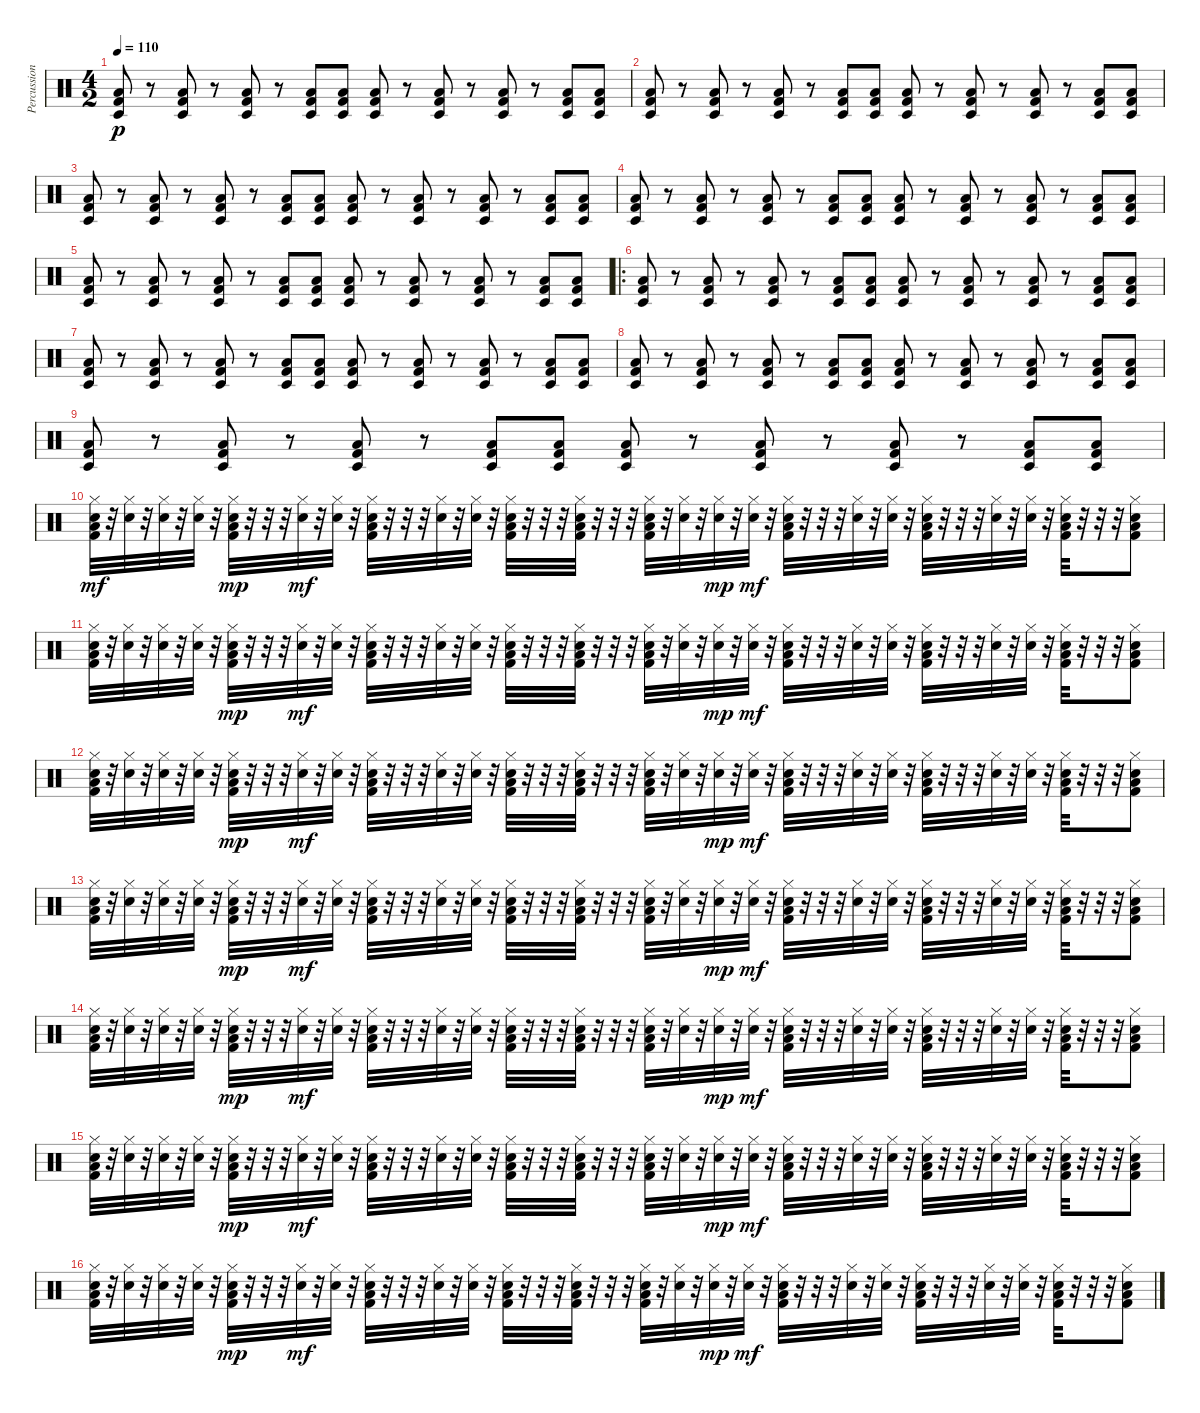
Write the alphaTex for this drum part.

\track ("Percussion2" "Percussion") {instrument percussion}
\staff
\articulation defaults
\ts (4 2)
\tempo 110
\clef neutral
\ks c
("Low Floor Tom (hit)" "Kick (hit) 2" "Timbale low (hit)").8{dy p} r.8 ("Low Floor Tom (hit)" "Kick (hit) 2" "Timbale low (hit)").8 r.8 ("Low Floor Tom (hit)" "Kick (hit) 2" "Timbale low (hit)").8 r.8 ("Low Floor Tom (hit)" "Kick (hit) 2" "Timbale low (hit)").8 ("Low Floor Tom (hit)" "Kick (hit) 2" "Timbale low (hit)").8 ("Low Floor Tom (hit)" "Kick (hit) 2" "Timbale low (hit)").8 r.8 ("Low Floor Tom (hit)" "Kick (hit) 2" "Timbale low (hit)").8 r.8 ("Low Floor Tom (hit)" "Kick (hit) 2" "Timbale low (hit)").8 r.8 ("Low Floor Tom (hit)" "Kick (hit) 2" "Timbale low (hit)").8 ("Low Floor Tom (hit)" "Kick (hit) 2" "Timbale low (hit)").8 |
("Low Floor Tom (hit)" "Kick (hit) 2" "Timbale low (hit)").8 r.8 ("Low Floor Tom (hit)" "Kick (hit) 2" "Timbale low (hit)").8 r.8 ("Low Floor Tom (hit)" "Kick (hit) 2" "Timbale low (hit)").8 r.8 ("Low Floor Tom (hit)" "Kick (hit) 2" "Timbale low (hit)").8 ("Low Floor Tom (hit)" "Kick (hit) 2" "Timbale low (hit)").8 ("Low Floor Tom (hit)" "Kick (hit) 2" "Timbale low (hit)").8 r.8 ("Low Floor Tom (hit)" "Kick (hit) 2" "Timbale low (hit)").8 r.8 ("Low Floor Tom (hit)" "Kick (hit) 2" "Timbale low (hit)").8 r.8 ("Low Floor Tom (hit)" "Kick (hit) 2" "Timbale low (hit)").8 ("Low Floor Tom (hit)" "Kick (hit) 2" "Timbale low (hit)").8 |
("Low Floor Tom (hit)" "Kick (hit) 2" "Timbale low (hit)").8 r.8 ("Low Floor Tom (hit)" "Kick (hit) 2" "Timbale low (hit)").8 r.8 ("Low Floor Tom (hit)" "Kick (hit) 2" "Timbale low (hit)").8 r.8 ("Low Floor Tom (hit)" "Kick (hit) 2" "Timbale low (hit)").8 ("Low Floor Tom (hit)" "Kick (hit) 2" "Timbale low (hit)").8 ("Low Floor Tom (hit)" "Kick (hit) 2" "Timbale low (hit)").8 r.8 ("Low Floor Tom (hit)" "Kick (hit) 2" "Timbale low (hit)").8 r.8 ("Low Floor Tom (hit)" "Kick (hit) 2" "Timbale low (hit)").8 r.8 ("Low Floor Tom (hit)" "Kick (hit) 2" "Timbale low (hit)").8 ("Low Floor Tom (hit)" "Kick (hit) 2" "Timbale low (hit)").8 |
("Low Floor Tom (hit)" "Kick (hit) 2" "Timbale low (hit)").8 r.8 ("Low Floor Tom (hit)" "Kick (hit) 2" "Timbale low (hit)").8 r.8 ("Low Floor Tom (hit)" "Kick (hit) 2" "Timbale low (hit)").8 r.8 ("Low Floor Tom (hit)" "Kick (hit) 2" "Timbale low (hit)").8 ("Low Floor Tom (hit)" "Kick (hit) 2" "Timbale low (hit)").8 ("Low Floor Tom (hit)" "Kick (hit) 2" "Timbale low (hit)").8 r.8 ("Low Floor Tom (hit)" "Kick (hit) 2" "Timbale low (hit)").8 r.8 ("Low Floor Tom (hit)" "Kick (hit) 2" "Timbale low (hit)").8 r.8 ("Low Floor Tom (hit)" "Kick (hit) 2" "Timbale low (hit)").8 ("Low Floor Tom (hit)" "Kick (hit) 2" "Timbale low (hit)").8 |
("Low Floor Tom (hit)" "Kick (hit) 2" "Timbale low (hit)").8 r.8 ("Low Floor Tom (hit)" "Kick (hit) 2" "Timbale low (hit)").8 r.8 ("Low Floor Tom (hit)" "Kick (hit) 2" "Timbale low (hit)").8 r.8 ("Low Floor Tom (hit)" "Kick (hit) 2" "Timbale low (hit)").8 ("Low Floor Tom (hit)" "Kick (hit) 2" "Timbale low (hit)").8 ("Low Floor Tom (hit)" "Kick (hit) 2" "Timbale low (hit)").8 r.8 ("Low Floor Tom (hit)" "Kick (hit) 2" "Timbale low (hit)").8 r.8 ("Low Floor Tom (hit)" "Kick (hit) 2" "Timbale low (hit)").8 r.8 ("Low Floor Tom (hit)" "Kick (hit) 2" "Timbale low (hit)").8 ("Low Floor Tom (hit)" "Kick (hit) 2" "Timbale low (hit)").8 |
\ro
("Low Floor Tom (hit)" "Kick (hit) 2" "Timbale low (hit)").8 r.8 ("Low Floor Tom (hit)" "Kick (hit) 2" "Timbale low (hit)").8 r.8 ("Low Floor Tom (hit)" "Kick (hit) 2" "Timbale low (hit)").8 r.8 ("Low Floor Tom (hit)" "Kick (hit) 2" "Timbale low (hit)").8 ("Low Floor Tom (hit)" "Kick (hit) 2" "Timbale low (hit)").8 ("Low Floor Tom (hit)" "Kick (hit) 2" "Timbale low (hit)").8 r.8 ("Low Floor Tom (hit)" "Kick (hit) 2" "Timbale low (hit)").8 r.8 ("Low Floor Tom (hit)" "Kick (hit) 2" "Timbale low (hit)").8 r.8 ("Low Floor Tom (hit)" "Kick (hit) 2" "Timbale low (hit)").8 ("Low Floor Tom (hit)" "Kick (hit) 2" "Timbale low (hit)").8 |
("Low Floor Tom (hit)" "Kick (hit) 2" "Timbale low (hit)").8 r.8 ("Low Floor Tom (hit)" "Kick (hit) 2" "Timbale low (hit)").8 r.8 ("Low Floor Tom (hit)" "Kick (hit) 2" "Timbale low (hit)").8 r.8 ("Low Floor Tom (hit)" "Kick (hit) 2" "Timbale low (hit)").8 ("Low Floor Tom (hit)" "Kick (hit) 2" "Timbale low (hit)").8 ("Low Floor Tom (hit)" "Kick (hit) 2" "Timbale low (hit)").8 r.8 ("Low Floor Tom (hit)" "Kick (hit) 2" "Timbale low (hit)").8 r.8 ("Low Floor Tom (hit)" "Kick (hit) 2" "Timbale low (hit)").8 r.8 ("Low Floor Tom (hit)" "Kick (hit) 2" "Timbale low (hit)").8 ("Low Floor Tom (hit)" "Kick (hit) 2" "Timbale low (hit)").8 |
("Low Floor Tom (hit)" "Kick (hit) 2" "Timbale low (hit)").8 r.8 ("Low Floor Tom (hit)" "Kick (hit) 2" "Timbale low (hit)").8 r.8 ("Low Floor Tom (hit)" "Kick (hit) 2" "Timbale low (hit)").8 r.8 ("Low Floor Tom (hit)" "Kick (hit) 2" "Timbale low (hit)").8 ("Low Floor Tom (hit)" "Kick (hit) 2" "Timbale low (hit)").8 ("Low Floor Tom (hit)" "Kick (hit) 2" "Timbale low (hit)").8 r.8 ("Low Floor Tom (hit)" "Kick (hit) 2" "Timbale low (hit)").8 r.8 ("Low Floor Tom (hit)" "Kick (hit) 2" "Timbale low (hit)").8 r.8 ("Low Floor Tom (hit)" "Kick (hit) 2" "Timbale low (hit)").8 ("Low Floor Tom (hit)" "Kick (hit) 2" "Timbale low (hit)").8 |
("Low Floor Tom (hit)" "Kick (hit) 2" "Timbale low (hit)").8 r.8 ("Low Floor Tom (hit)" "Kick (hit) 2" "Timbale low (hit)").8 r.8 ("Low Floor Tom (hit)" "Kick (hit) 2" "Timbale low (hit)").8 r.8 ("Low Floor Tom (hit)" "Kick (hit) 2" "Timbale low (hit)").8 ("Low Floor Tom (hit)" "Kick (hit) 2" "Timbale low (hit)").8 ("Low Floor Tom (hit)" "Kick (hit) 2" "Timbale low (hit)").8 r.8 ("Low Floor Tom (hit)" "Kick (hit) 2" "Timbale low (hit)").8 r.8 ("Low Floor Tom (hit)" "Kick (hit) 2" "Timbale low (hit)").8 r.8 ("Low Floor Tom (hit)" "Kick (hit) 2" "Timbale low (hit)").8 ("Low Floor Tom (hit)" "Kick (hit) 2" "Timbale low (hit)").8 |
("Hi-Hat (closed)" "Low Floor Tom (hit)" "Kick (hit) 2" "Electric Snare (hit)").32{dy mf} r.32 ("Hi-Hat (closed)" "Electric Snare (hit)").32 r.32 ("Hi-Hat (closed)" "Electric Snare (hit)").32 r.32 ("Hi-Hat (closed)" "Electric Snare (hit)").32 r.32 ("Hi-Hat (closed)" "Low Floor Tom (hit)" "Kick (hit) 2" "Electric Snare (hit)").32{dy mp} r.32 r.32 r.32 ("Hi-Hat (closed)" "Electric Snare (hit)").32{dy mf} r.32 ("Hi-Hat (closed)" "Electric Snare (hit)").32 r.32 ("Hi-Hat (closed)" "Low Floor Tom (hit)" "Kick (hit) 2" "Electric Snare (hit)").32 r.32 r.32 r.32 ("Hi-Hat (closed)" "Electric Snare (hit)").32 r.32 ("Hi-Hat (closed)" "Electric Snare (hit)").32 r.32 ("Hi-Hat (closed)" "Low Floor Tom (hit)" "Kick (hit) 2" "Electric Snare (hit)").32 r.32 r.32 r.32 ("Hi-Hat (closed)" "Low Floor Tom (hit)" "Kick (hit) 2" "Electric Snare (hit)").32 r.32 r.32 r.32 ("Hi-Hat (closed)" "Low Floor Tom (hit)" "Kick (hit) 2" "Electric Snare (hit)").32 r.32 ("Hi-Hat (closed)" "Electric Snare (hit)").32 r.32 ("Hi-Hat (closed)" "Electric Snare (hit)").32{dy mp} r.32 ("Hi-Hat (closed)" "Electric Snare (hit)").32{dy mf} r.32 ("Hi-Hat (closed)" "Low Floor Tom (hit)" "Kick (hit) 2" "Electric Snare (hit)").32 r.32 r.32 r.32 ("Hi-Hat (closed)" "Electric Snare (hit)").32 r.32 ("Hi-Hat (closed)" "Electric Snare (hit)").32 r.32 ("Hi-Hat (closed)" "Low Floor Tom (hit)" "Kick (hit) 2" "Electric Snare (hit)").32 r.32 r.32 r.32 ("Hi-Hat (closed)" "Electric Snare (hit)").32 r.32 ("Hi-Hat (closed)" "Electric Snare (hit)").32 r.32 ("Hi-Hat (closed)" "Low Floor Tom (hit)" "Kick (hit) 2" "Electric Snare (hit)").32 r.32 r.32 r.32 ("Hi-Hat (closed)" "Low Floor Tom (hit)" "Kick (hit) 2" "Electric Snare (hit)").8 |
("Hi-Hat (closed)" "Low Floor Tom (hit)" "Kick (hit) 2" "Electric Snare (hit)").32 r.32 ("Hi-Hat (closed)" "Electric Snare (hit)").32 r.32 ("Hi-Hat (closed)" "Electric Snare (hit)").32 r.32 ("Hi-Hat (closed)" "Electric Snare (hit)").32 r.32 ("Hi-Hat (closed)" "Low Floor Tom (hit)" "Kick (hit) 2" "Electric Snare (hit)").32{dy mp} r.32 r.32 r.32 ("Hi-Hat (closed)" "Electric Snare (hit)").32{dy mf} r.32 ("Hi-Hat (closed)" "Electric Snare (hit)").32 r.32 ("Hi-Hat (closed)" "Low Floor Tom (hit)" "Kick (hit) 2" "Electric Snare (hit)").32 r.32 r.32 r.32 ("Hi-Hat (closed)" "Electric Snare (hit)").32 r.32 ("Hi-Hat (closed)" "Electric Snare (hit)").32 r.32 ("Hi-Hat (closed)" "Low Floor Tom (hit)" "Kick (hit) 2" "Electric Snare (hit)").32 r.32 r.32 r.32 ("Hi-Hat (closed)" "Low Floor Tom (hit)" "Kick (hit) 2" "Electric Snare (hit)").32 r.32 r.32 r.32 ("Hi-Hat (closed)" "Low Floor Tom (hit)" "Kick (hit) 2" "Electric Snare (hit)").32 r.32 ("Hi-Hat (closed)" "Electric Snare (hit)").32 r.32 ("Hi-Hat (closed)" "Electric Snare (hit)").32{dy mp} r.32 ("Hi-Hat (closed)" "Electric Snare (hit)").32{dy mf} r.32 ("Hi-Hat (closed)" "Low Floor Tom (hit)" "Kick (hit) 2" "Electric Snare (hit)").32 r.32 r.32 r.32 ("Hi-Hat (closed)" "Electric Snare (hit)").32 r.32 ("Hi-Hat (closed)" "Electric Snare (hit)").32 r.32 ("Hi-Hat (closed)" "Low Floor Tom (hit)" "Kick (hit) 2" "Electric Snare (hit)").32 r.32 r.32 r.32 ("Hi-Hat (closed)" "Electric Snare (hit)").32 r.32 ("Hi-Hat (closed)" "Electric Snare (hit)").32 r.32 ("Hi-Hat (closed)" "Low Floor Tom (hit)" "Kick (hit) 2" "Electric Snare (hit)").32 r.32 r.32 r.32 ("Hi-Hat (closed)" "Low Floor Tom (hit)" "Kick (hit) 2" "Electric Snare (hit)").8 |
("Hi-Hat (closed)" "Low Floor Tom (hit)" "Kick (hit) 2" "Electric Snare (hit)").32 r.32 ("Hi-Hat (closed)" "Electric Snare (hit)").32 r.32 ("Hi-Hat (closed)" "Electric Snare (hit)").32 r.32 ("Hi-Hat (closed)" "Electric Snare (hit)").32 r.32 ("Hi-Hat (closed)" "Low Floor Tom (hit)" "Kick (hit) 2" "Electric Snare (hit)").32{dy mp} r.32 r.32 r.32 ("Hi-Hat (closed)" "Electric Snare (hit)").32{dy mf} r.32 ("Hi-Hat (closed)" "Electric Snare (hit)").32 r.32 ("Hi-Hat (closed)" "Low Floor Tom (hit)" "Kick (hit) 2" "Electric Snare (hit)").32 r.32 r.32 r.32 ("Hi-Hat (closed)" "Electric Snare (hit)").32 r.32 ("Hi-Hat (closed)" "Electric Snare (hit)").32 r.32 ("Hi-Hat (closed)" "Low Floor Tom (hit)" "Kick (hit) 2" "Electric Snare (hit)").32 r.32 r.32 r.32 ("Hi-Hat (closed)" "Low Floor Tom (hit)" "Kick (hit) 2" "Electric Snare (hit)").32 r.32 r.32 r.32 ("Hi-Hat (closed)" "Low Floor Tom (hit)" "Kick (hit) 2" "Electric Snare (hit)").32 r.32 ("Hi-Hat (closed)" "Electric Snare (hit)").32 r.32 ("Hi-Hat (closed)" "Electric Snare (hit)").32{dy mp} r.32 ("Hi-Hat (closed)" "Electric Snare (hit)").32{dy mf} r.32 ("Hi-Hat (closed)" "Low Floor Tom (hit)" "Kick (hit) 2" "Electric Snare (hit)").32 r.32 r.32 r.32 ("Hi-Hat (closed)" "Electric Snare (hit)").32 r.32 ("Hi-Hat (closed)" "Electric Snare (hit)").32 r.32 ("Hi-Hat (closed)" "Low Floor Tom (hit)" "Kick (hit) 2" "Electric Snare (hit)").32 r.32 r.32 r.32 ("Hi-Hat (closed)" "Electric Snare (hit)").32 r.32 ("Hi-Hat (closed)" "Electric Snare (hit)").32 r.32 ("Hi-Hat (closed)" "Low Floor Tom (hit)" "Kick (hit) 2" "Electric Snare (hit)").32 r.32 r.32 r.32 ("Hi-Hat (closed)" "Low Floor Tom (hit)" "Kick (hit) 2" "Electric Snare (hit)").8 |
("Hi-Hat (closed)" "Low Floor Tom (hit)" "Kick (hit) 2" "Electric Snare (hit)").32 r.32 ("Hi-Hat (closed)" "Electric Snare (hit)").32 r.32 ("Hi-Hat (closed)" "Electric Snare (hit)").32 r.32 ("Hi-Hat (closed)" "Electric Snare (hit)").32 r.32 ("Hi-Hat (closed)" "Low Floor Tom (hit)" "Kick (hit) 2" "Electric Snare (hit)").32{dy mp} r.32 r.32 r.32 ("Hi-Hat (closed)" "Electric Snare (hit)").32{dy mf} r.32 ("Hi-Hat (closed)" "Electric Snare (hit)").32 r.32 ("Hi-Hat (closed)" "Low Floor Tom (hit)" "Kick (hit) 2" "Electric Snare (hit)").32 r.32 r.32 r.32 ("Hi-Hat (closed)" "Electric Snare (hit)").32 r.32 ("Hi-Hat (closed)" "Electric Snare (hit)").32 r.32 ("Hi-Hat (closed)" "Low Floor Tom (hit)" "Kick (hit) 2" "Electric Snare (hit)").32 r.32 r.32 r.32 ("Hi-Hat (closed)" "Low Floor Tom (hit)" "Kick (hit) 2" "Electric Snare (hit)").32 r.32 r.32 r.32 ("Hi-Hat (closed)" "Low Floor Tom (hit)" "Kick (hit) 2" "Electric Snare (hit)").32 r.32 ("Hi-Hat (closed)" "Electric Snare (hit)").32 r.32 ("Hi-Hat (closed)" "Electric Snare (hit)").32{dy mp} r.32 ("Hi-Hat (closed)" "Electric Snare (hit)").32{dy mf} r.32 ("Hi-Hat (closed)" "Low Floor Tom (hit)" "Kick (hit) 2" "Electric Snare (hit)").32 r.32 r.32 r.32 ("Hi-Hat (closed)" "Electric Snare (hit)").32 r.32 ("Hi-Hat (closed)" "Electric Snare (hit)").32 r.32 ("Hi-Hat (closed)" "Low Floor Tom (hit)" "Kick (hit) 2" "Electric Snare (hit)").32 r.32 r.32 r.32 ("Hi-Hat (closed)" "Electric Snare (hit)").32 r.32 ("Hi-Hat (closed)" "Electric Snare (hit)").32 r.32 ("Hi-Hat (closed)" "Low Floor Tom (hit)" "Kick (hit) 2" "Electric Snare (hit)").32 r.32 r.32 r.32 ("Hi-Hat (closed)" "Low Floor Tom (hit)" "Kick (hit) 2" "Electric Snare (hit)").8 |
("Hi-Hat (closed)" "Low Floor Tom (hit)" "Kick (hit) 2" "Electric Snare (hit)").32 r.32 ("Hi-Hat (closed)" "Electric Snare (hit)").32 r.32 ("Hi-Hat (closed)" "Electric Snare (hit)").32 r.32 ("Hi-Hat (closed)" "Electric Snare (hit)").32 r.32 ("Hi-Hat (closed)" "Low Floor Tom (hit)" "Kick (hit) 2" "Electric Snare (hit)").32{dy mp} r.32 r.32 r.32 ("Hi-Hat (closed)" "Electric Snare (hit)").32{dy mf} r.32 ("Hi-Hat (closed)" "Electric Snare (hit)").32 r.32 ("Hi-Hat (closed)" "Low Floor Tom (hit)" "Kick (hit) 2" "Electric Snare (hit)").32 r.32 r.32 r.32 ("Hi-Hat (closed)" "Electric Snare (hit)").32 r.32 ("Hi-Hat (closed)" "Electric Snare (hit)").32 r.32 ("Hi-Hat (closed)" "Low Floor Tom (hit)" "Kick (hit) 2" "Electric Snare (hit)").32 r.32 r.32 r.32 ("Hi-Hat (closed)" "Low Floor Tom (hit)" "Kick (hit) 2" "Electric Snare (hit)").32 r.32 r.32 r.32 ("Hi-Hat (closed)" "Low Floor Tom (hit)" "Kick (hit) 2" "Electric Snare (hit)").32 r.32 ("Hi-Hat (closed)" "Electric Snare (hit)").32 r.32 ("Hi-Hat (closed)" "Electric Snare (hit)").32{dy mp} r.32 ("Hi-Hat (closed)" "Electric Snare (hit)").32{dy mf} r.32 ("Hi-Hat (closed)" "Low Floor Tom (hit)" "Kick (hit) 2" "Electric Snare (hit)").32 r.32 r.32 r.32 ("Hi-Hat (closed)" "Electric Snare (hit)").32 r.32 ("Hi-Hat (closed)" "Electric Snare (hit)").32 r.32 ("Hi-Hat (closed)" "Low Floor Tom (hit)" "Kick (hit) 2" "Electric Snare (hit)").32 r.32 r.32 r.32 ("Hi-Hat (closed)" "Electric Snare (hit)").32 r.32 ("Hi-Hat (closed)" "Electric Snare (hit)").32 r.32 ("Hi-Hat (closed)" "Low Floor Tom (hit)" "Kick (hit) 2" "Electric Snare (hit)").32 r.32 r.32 r.32 ("Hi-Hat (closed)" "Low Floor Tom (hit)" "Kick (hit) 2" "Electric Snare (hit)").8 |
("Hi-Hat (closed)" "Low Floor Tom (hit)" "Kick (hit) 2" "Electric Snare (hit)").32 r.32 ("Hi-Hat (closed)" "Electric Snare (hit)").32 r.32 ("Hi-Hat (closed)" "Electric Snare (hit)").32 r.32 ("Hi-Hat (closed)" "Electric Snare (hit)").32 r.32 ("Hi-Hat (closed)" "Low Floor Tom (hit)" "Kick (hit) 2" "Electric Snare (hit)").32{dy mp} r.32 r.32 r.32 ("Hi-Hat (closed)" "Electric Snare (hit)").32{dy mf} r.32 ("Hi-Hat (closed)" "Electric Snare (hit)").32 r.32 ("Hi-Hat (closed)" "Low Floor Tom (hit)" "Kick (hit) 2" "Electric Snare (hit)").32 r.32 r.32 r.32 ("Hi-Hat (closed)" "Electric Snare (hit)").32 r.32 ("Hi-Hat (closed)" "Electric Snare (hit)").32 r.32 ("Hi-Hat (closed)" "Low Floor Tom (hit)" "Kick (hit) 2" "Electric Snare (hit)").32 r.32 r.32 r.32 ("Hi-Hat (closed)" "Low Floor Tom (hit)" "Kick (hit) 2" "Electric Snare (hit)").32 r.32 r.32 r.32 ("Hi-Hat (closed)" "Low Floor Tom (hit)" "Kick (hit) 2" "Electric Snare (hit)").32 r.32 ("Hi-Hat (closed)" "Electric Snare (hit)").32 r.32 ("Hi-Hat (closed)" "Electric Snare (hit)").32{dy mp} r.32 ("Hi-Hat (closed)" "Electric Snare (hit)").32{dy mf} r.32 ("Hi-Hat (closed)" "Low Floor Tom (hit)" "Kick (hit) 2" "Electric Snare (hit)").32 r.32 r.32 r.32 ("Hi-Hat (closed)" "Electric Snare (hit)").32 r.32 ("Hi-Hat (closed)" "Electric Snare (hit)").32 r.32 ("Hi-Hat (closed)" "Low Floor Tom (hit)" "Kick (hit) 2" "Electric Snare (hit)").32 r.32 r.32 r.32 ("Hi-Hat (closed)" "Electric Snare (hit)").32 r.32 ("Hi-Hat (closed)" "Electric Snare (hit)").32 r.32 ("Hi-Hat (closed)" "Low Floor Tom (hit)" "Kick (hit) 2" "Electric Snare (hit)").32 r.32 r.32 r.32 ("Hi-Hat (closed)" "Low Floor Tom (hit)" "Kick (hit) 2" "Electric Snare (hit)").8 |
("Hi-Hat (closed)" "Low Floor Tom (hit)" "Kick (hit) 2" "Electric Snare (hit)").32 r.32 ("Hi-Hat (closed)" "Electric Snare (hit)").32 r.32 ("Hi-Hat (closed)" "Electric Snare (hit)").32 r.32 ("Hi-Hat (closed)" "Electric Snare (hit)").32 r.32 ("Hi-Hat (closed)" "Low Floor Tom (hit)" "Kick (hit) 2" "Electric Snare (hit)").32{dy mp} r.32 r.32 r.32 ("Hi-Hat (closed)" "Electric Snare (hit)").32{dy mf} r.32 ("Hi-Hat (closed)" "Electric Snare (hit)").32 r.32 ("Hi-Hat (closed)" "Low Floor Tom (hit)" "Kick (hit) 2" "Electric Snare (hit)").32 r.32 r.32 r.32 ("Hi-Hat (closed)" "Electric Snare (hit)").32 r.32 ("Hi-Hat (closed)" "Electric Snare (hit)").32 r.32 ("Hi-Hat (closed)" "Low Floor Tom (hit)" "Kick (hit) 2" "Electric Snare (hit)").32 r.32 r.32 r.32 ("Hi-Hat (closed)" "Low Floor Tom (hit)" "Kick (hit) 2" "Electric Snare (hit)").32 r.32 r.32 r.32 ("Hi-Hat (closed)" "Low Floor Tom (hit)" "Kick (hit) 2" "Electric Snare (hit)").32 r.32 ("Hi-Hat (closed)" "Electric Snare (hit)").32 r.32 ("Hi-Hat (closed)" "Electric Snare (hit)").32{dy mp} r.32 ("Hi-Hat (closed)" "Electric Snare (hit)").32{dy mf} r.32 ("Hi-Hat (closed)" "Low Floor Tom (hit)" "Kick (hit) 2" "Electric Snare (hit)").32 r.32 r.32 r.32 ("Hi-Hat (closed)" "Electric Snare (hit)").32 r.32 ("Hi-Hat (closed)" "Electric Snare (hit)").32 r.32 ("Hi-Hat (closed)" "Low Floor Tom (hit)" "Kick (hit) 2" "Electric Snare (hit)").32 r.32 r.32 r.32 ("Hi-Hat (closed)" "Electric Snare (hit)").32 r.32 ("Hi-Hat (closed)" "Electric Snare (hit)").32 r.32 ("Hi-Hat (closed)" "Low Floor Tom (hit)" "Kick (hit) 2" "Electric Snare (hit)").32 r.32 r.32 r.32 ("Hi-Hat (closed)" "Low Floor Tom (hit)" "Kick (hit) 2" "Electric Snare (hit)").8
